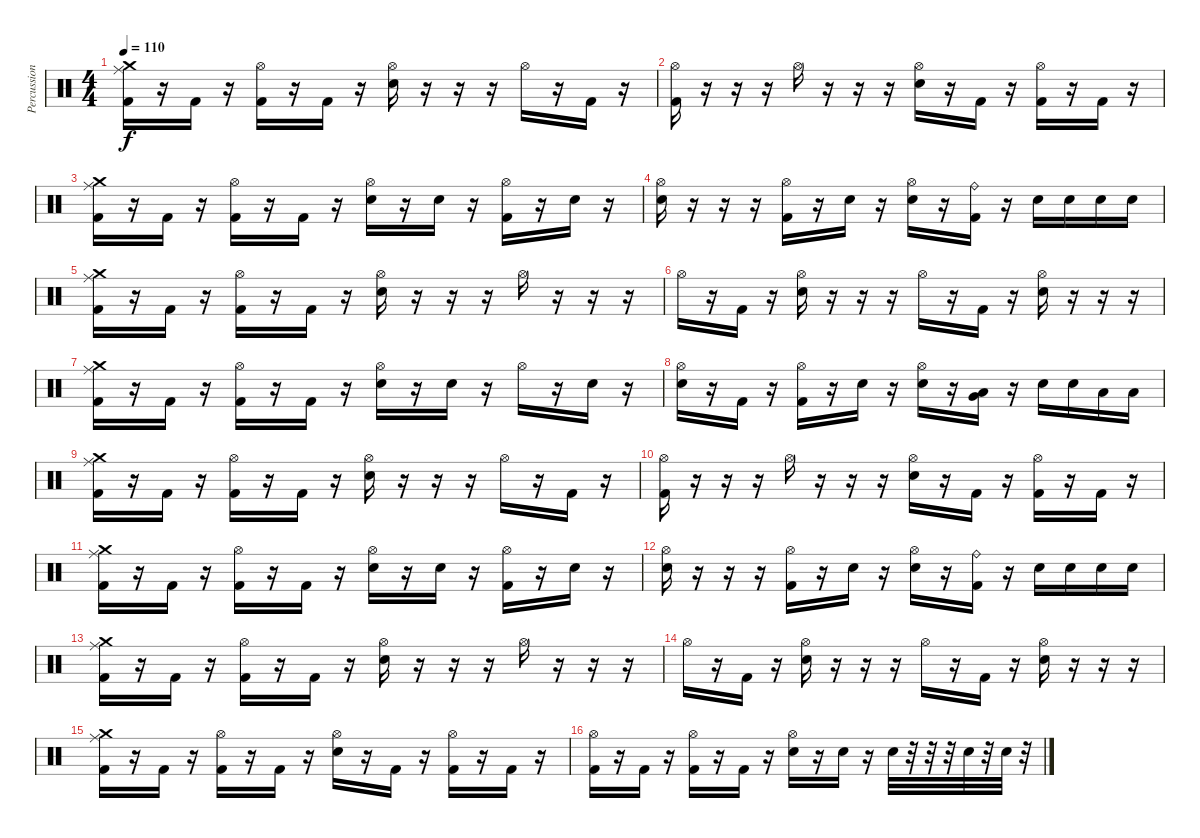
\track ("Percussion" "Percussion") {instrument percussion}
\staff {score}
\articulation defaults
\ts (4 4)
\tempo 110
\clef neutral
\ks c
("Ride (middle)" "Crash medium (hit)" "Kick (hit) 2").16{dy f} r.16 "Kick (hit) 2".16 r.16 ("Hi-Hat (open)" "Kick (hit) 2").16 r.16 "Kick (hit) 2".16 r.16 ("Hi-Hat (open)" "Electric Snare (hit)").16 r.16 r.16 r.16 "Hi-Hat (open)".16 r.16 "Kick (hit) 2".16 r.16 |
("Hi-Hat (open)" "Kick (hit) 2").16 r.16 r.16 r.16 "Hi-Hat (open)".16 r.16 r.16 r.16 ("Hi-Hat (open)" "Electric Snare (hit)").16 r.16 "Kick (hit) 2".16 r.16 ("Hi-Hat (open)" "Kick (hit) 2").16 r.16 "Kick (hit) 2".16 r.16 |
("Ride (middle)" "Crash medium (hit)" "Kick (hit) 2").16 r.16 "Kick (hit) 2".16 r.16 ("Hi-Hat (open)" "Kick (hit) 2").16 r.16 "Kick (hit) 2".16 r.16 ("Hi-Hat (open)" "Electric Snare (hit)").16 r.16 "Electric Snare (hit)".16 r.16 ("Hi-Hat (open)" "Kick (hit) 2").16 r.16 "Electric Snare (hit)".16 r.16 |
("Hi-Hat (open)" "Electric Snare (hit)").16 r.16 r.16 r.16 ("Hi-Hat (open)" "Kick (hit) 2").16 r.16 "Electric Snare (hit)".16 r.16 ("Hi-Hat (open)" "Electric Snare (hit)").16 r.16 ("Ride (bell)" "Kick (hit) 2").16 r.16 "Electric Snare (hit)".16 "Electric Snare (hit)".16 "Electric Snare (hit)".16 "Electric Snare (hit)".16 |
("Ride (middle)" "Crash medium (hit)" "Kick (hit) 2").16 r.16 "Kick (hit) 2".16 r.16 ("Hi-Hat (open)" "Kick (hit) 2").16 r.16 "Kick (hit) 2".16 r.16 ("Hi-Hat (open)" "Electric Snare (hit)").16 r.16 r.16 r.16 "Hi-Hat (open)".16 r.16 r.16 r.16 |
"Hi-Hat (open)".16 r.16 "Kick (hit) 2".16 r.16 ("Hi-Hat (open)" "Electric Snare (hit)").16 r.16 r.16 r.16 "Hi-Hat (open)".16 r.16 "Kick (hit) 2".16 r.16 ("Hi-Hat (open)" "Electric Snare (hit)").16 r.16 r.16 r.16 |
("Ride (middle)" "Crash medium (hit)" "Kick (hit) 2").16 r.16 "Kick (hit) 2".16 r.16 ("Hi-Hat (open)" "Kick (hit) 2").16 r.16 "Kick (hit) 2".16 r.16 ("Hi-Hat (open)" "Electric Snare (hit)").16 r.16 "Electric Snare (hit)".16 r.16 "Hi-Hat (open)".16 r.16 "Electric Snare (hit)".16 r.16 |
("Hi-Hat (open)" "Electric Snare (hit)").16 r.16 "Kick (hit) 2".16 r.16 ("Hi-Hat (open)" "Kick (hit) 2").16 r.16 "Electric Snare (hit)".16 r.16 ("Hi-Hat (open)" "Electric Snare (hit)").16 r.16 ("Very Low Tom (hit)" "Low Floor Tom (hit)").16 r.16 "Electric Snare (hit)".16 "Electric Snare (hit)".16 "Low Floor Tom (hit)".16 "Low Floor Tom (hit)".16 |
("Ride (middle)" "Crash medium (hit)" "Kick (hit) 2").16 r.16 "Kick (hit) 2".16 r.16 ("Hi-Hat (open)" "Kick (hit) 2").16 r.16 "Kick (hit) 2".16 r.16 ("Hi-Hat (open)" "Electric Snare (hit)").16 r.16 r.16 r.16 "Hi-Hat (open)".16 r.16 "Kick (hit) 2".16 r.16 |
("Hi-Hat (open)" "Kick (hit) 2").16 r.16 r.16 r.16 "Hi-Hat (open)".16 r.16 r.16 r.16 ("Hi-Hat (open)" "Electric Snare (hit)").16 r.16 "Kick (hit) 2".16 r.16 ("Hi-Hat (open)" "Kick (hit) 2").16 r.16 "Kick (hit) 2".16 r.16 |
("Ride (middle)" "Crash medium (hit)" "Kick (hit) 2").16 r.16 "Kick (hit) 2".16 r.16 ("Hi-Hat (open)" "Kick (hit) 2").16 r.16 "Kick (hit) 2".16 r.16 ("Hi-Hat (open)" "Electric Snare (hit)").16 r.16 "Electric Snare (hit)".16 r.16 ("Hi-Hat (open)" "Kick (hit) 2").16 r.16 "Electric Snare (hit)".16 r.16 |
("Hi-Hat (open)" "Electric Snare (hit)").16 r.16 r.16 r.16 ("Hi-Hat (open)" "Kick (hit) 2").16 r.16 "Electric Snare (hit)".16 r.16 ("Hi-Hat (open)" "Electric Snare (hit)").16 r.16 ("Ride (bell)" "Kick (hit) 2").16 r.16 "Electric Snare (hit)".16 "Electric Snare (hit)".16 "Electric Snare (hit)".16 "Electric Snare (hit)".16 |
("Ride (middle)" "Crash medium (hit)" "Kick (hit) 2").16 r.16 "Kick (hit) 2".16 r.16 ("Hi-Hat (open)" "Kick (hit) 2").16 r.16 "Kick (hit) 2".16 r.16 ("Hi-Hat (open)" "Electric Snare (hit)").16 r.16 r.16 r.16 "Hi-Hat (open)".16 r.16 r.16 r.16 |
"Hi-Hat (open)".16 r.16 "Kick (hit) 2".16 r.16 ("Hi-Hat (open)" "Electric Snare (hit)").16 r.16 r.16 r.16 "Hi-Hat (open)".16 r.16 "Kick (hit) 2".16 r.16 ("Hi-Hat (open)" "Electric Snare (hit)").16 r.16 r.16 r.16 |
("Ride (middle)" "Crash medium (hit)" "Kick (hit) 2").16 r.16 "Kick (hit) 2".16 r.16 ("Hi-Hat (open)" "Kick (hit) 2").16 r.16 "Kick (hit) 2".16 r.16 ("Hi-Hat (open)" "Electric Snare (hit)").16 r.16 "Kick (hit) 2".16 r.16 ("Hi-Hat (open)" "Kick (hit) 2").16 r.16 "Kick (hit) 2".16 r.16 |
("Hi-Hat (open)" "Kick (hit) 2").16 r.16 "Kick (hit) 2".16 r.16 ("Hi-Hat (open)" "Kick (hit) 2").16 r.16 "Kick (hit) 2".16 r.16 ("Hi-Hat (open)" "Electric Snare (hit)").16 r.16 "Electric Snare (hit)".16 r.16 "Electric Snare (hit)".32 r.32 r.32 r.32 "Electric Snare (hit)".32 r.32 "Electric Snare (hit)".32 r.32
